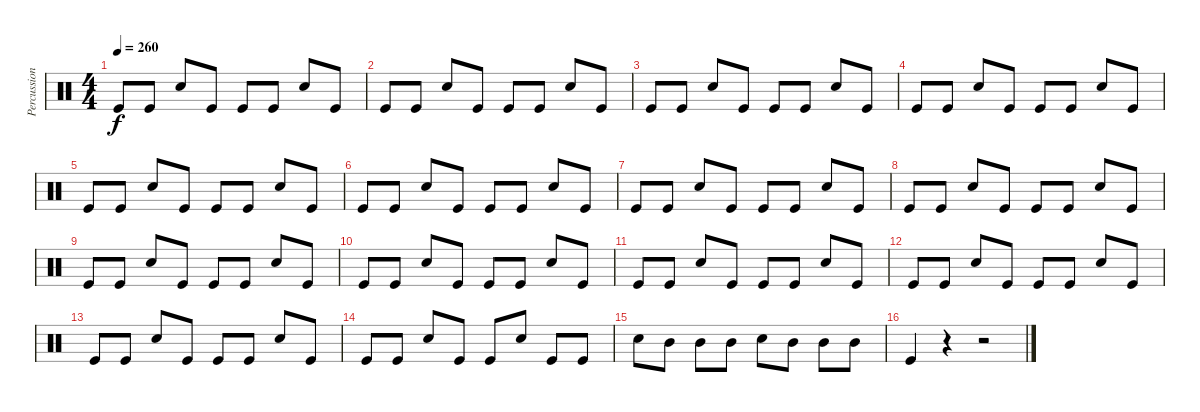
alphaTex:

\track ("Percussion" "Percussion") {instrument percussion}
\staff {score}
\articulation defaults
\ts (4 4)
\tempo 260
\clef neutral
\ks c "Kick (hit)".8{dy f} "Kick (hit)".8 "Snare (hit) 2".8 "Kick (hit)".8 "Kick (hit)".8 "Kick (hit)".8 "Snare (hit) 2".8 "Kick (hit)".8
|
"Kick (hit)".8 "Kick (hit)".8 "Snare (hit) 2".8 "Kick (hit)".8 "Kick (hit)".8 "Kick (hit)".8 "Snare (hit) 2".8 "Kick (hit)".8 |
"Kick (hit)".8 "Kick (hit)".8 "Snare (hit) 2".8 "Kick (hit)".8 "Kick (hit)".8 "Kick (hit)".8 "Snare (hit) 2".8 "Kick (hit)".8 |
"Kick (hit)".8 "Kick (hit)".8 "Snare (hit) 2".8 "Kick (hit)".8 "Kick (hit)".8 "Kick (hit)".8 "Snare (hit) 2".8 "Kick (hit)".8 |
"Kick (hit)".8 "Kick (hit)".8 "Snare (hit) 2".8 "Kick (hit)".8 "Kick (hit)".8 "Kick (hit)".8 "Snare (hit) 2".8 "Kick (hit)".8 |
"Kick (hit)".8 "Kick (hit)".8 "Snare (hit) 2".8 "Kick (hit)".8 "Kick (hit)".8 "Kick (hit)".8 "Snare (hit) 2".8 "Kick (hit)".8 |
"Kick (hit)".8 "Kick (hit)".8 "Snare (hit) 2".8 "Kick (hit)".8 "Kick (hit)".8 "Kick (hit)".8 "Snare (hit) 2".8 "Kick (hit)".8 |
"Kick (hit)".8 "Kick (hit)".8 "Snare (hit) 2".8 "Kick (hit)".8 "Kick (hit)".8 "Kick (hit)".8 "Snare (hit) 2".8 "Kick (hit)".8 |
"Kick (hit)".8 "Kick (hit)".8 "Snare (hit) 2".8 "Kick (hit)".8 "Kick (hit)".8 "Kick (hit)".8 "Snare (hit) 2".8 "Kick (hit)".8 |
"Kick (hit)".8 "Kick (hit)".8 "Snare (hit) 2".8 "Kick (hit)".8 "Kick (hit)".8 "Kick (hit)".8 "Snare (hit) 2".8 "Kick (hit)".8 |
"Kick (hit)".8 "Kick (hit)".8 "Snare (hit) 2".8 "Kick (hit)".8 "Kick (hit)".8 "Kick (hit)".8 "Snare (hit) 2".8 "Kick (hit)".8 |
"Kick (hit)".8 "Kick (hit)".8 "Snare (hit) 2".8 "Kick (hit)".8 "Kick (hit)".8 "Kick (hit)".8 "Snare (hit) 2".8 "Kick (hit)".8 |
"Kick (hit)".8 "Kick (hit)".8 "Snare (hit) 2".8 "Kick (hit)".8 "Kick (hit)".8 "Kick (hit)".8 "Snare (hit) 2".8 "Kick (hit)".8 |
"Kick (hit)".8 "Kick (hit)".8 "Snare (hit) 2".8 "Kick (hit)".8 "Kick (hit)".8 "Snare (hit) 2".8 "Kick (hit)".8 "Kick (hit)".8 |
"Snare (hit) 2".8 "Mid Tom (hit)".8 "Mid Tom (hit)".8 "Mid Tom (hit)".8 "Snare (hit) 2".8 "Mid Tom (hit)".8 "Mid Tom (hit)".8 "Mid Tom (hit)".8 |
"Kick (hit)".4 r.4 r.2
